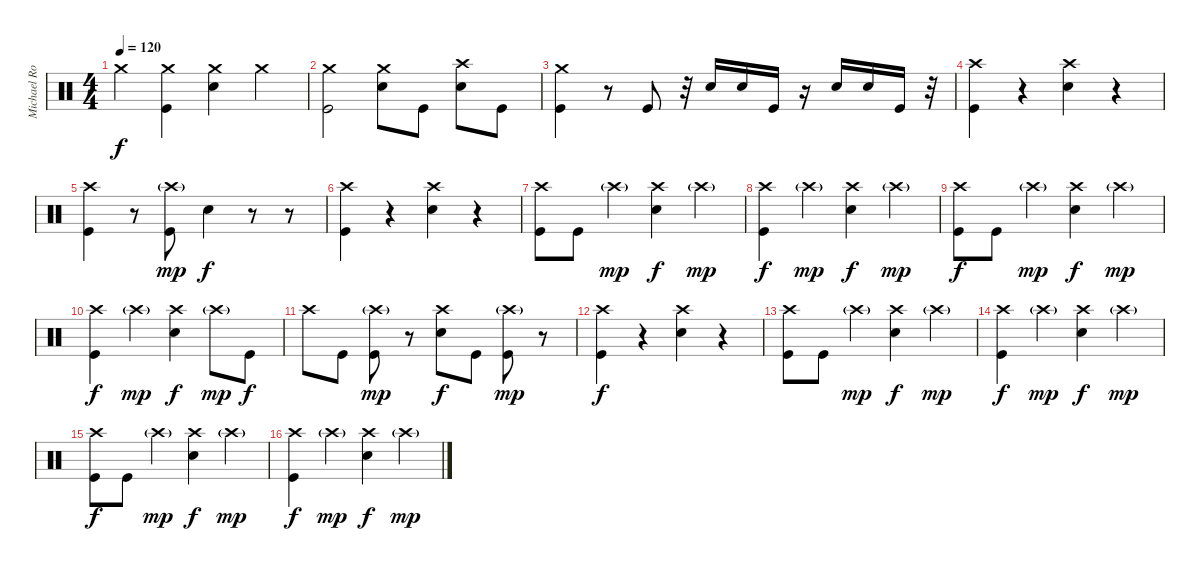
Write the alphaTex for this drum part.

\track ("Michael Roponus " "Michael Ro") {instrument percussion}
\staff {score}
\articulation defaults
\ts (4 4)
\tempo 120
\clef neutral
\ks c "Crash medium (hit)".4{dy f}
("Crash medium (hit)" "Kick (hit)").4 ("Crash medium (hit)" "Snare (hit) 2").4 "Crash medium (hit)".4 |
("Crash medium (hit)" "Kick (hit)").2 ("Crash medium (hit)" "Snare (hit) 2").8 "Kick (hit)".8 ("Crash high (hit)" "Snare (hit) 2").8 "Kick (hit)".8 |
("Crash medium (hit)" "Kick (hit)").4 r.8 "Kick (hit)".8 r.32 "Snare (hit) 2".16 "Snare (hit) 2".16 "Kick (hit)".16 r.16 "Snare (hit) 2".16 "Snare (hit) 2".16 "Kick (hit)".16 r.32 |
("Crash high (hit)" "Kick (hit)").4 r.4 ("Crash high (hit)" "Snare (hit) 2").4 r.4 |
("Crash high (hit)" "Kick (hit)").4 r.8 ("Crash high (hit)"{g} "Kick (hit)").8{dy mp} "Snare (hit) 2".4{dy f} r.8 r.8 |
("Crash high (hit)" "Kick (hit)").4 r.4 ("Crash high (hit)" "Snare (hit) 2").4 r.4 |
("Crash high (hit)" "Kick (hit)").8 "Kick (hit)".8 "Crash high (hit)"{g}.4{dy mp} ("Crash high (hit)" "Snare (hit) 2").4{dy f} "Crash high (hit)"{g}.4{dy mp} |
("Crash high (hit)" "Kick (hit)").4{dy f} "Crash high (hit)"{g}.4{dy mp} ("Crash high (hit)" "Snare (hit) 2").4{dy f} "Crash high (hit)"{g}.4{dy mp} |
("Crash high (hit)" "Kick (hit)").8{dy f} "Kick (hit)".8 "Crash high (hit)"{g}.4{dy mp} ("Crash high (hit)" "Snare (hit) 2").4{dy f} "Crash high (hit)"{g}.4{dy mp} |
("Crash high (hit)" "Kick (hit)").4{dy f} "Crash high (hit)"{g}.4{dy mp} ("Crash high (hit)" "Snare (hit) 2").4{dy f} "Crash high (hit)"{g}.8{dy mp} "Kick (hit)".8{dy f} |
"Crash high (hit)".8 "Kick (hit)".8 ("Crash high (hit)"{g} "Kick (hit)").8{dy mp} r.8 ("Crash high (hit)" "Snare (hit) 2").8{dy f} "Kick (hit)".8 ("Crash high (hit)"{g} "Kick (hit)").8{dy mp} r.8 |
("Crash high (hit)" "Kick (hit)").4{dy f} r.4 ("Crash high (hit)" "Snare (hit) 2").4 r.4 |
("Crash high (hit)" "Kick (hit)").8 "Kick (hit)".8 "Crash high (hit)"{g}.4{dy mp} ("Crash high (hit)" "Snare (hit) 2").4{dy f} "Crash high (hit)"{g}.4{dy mp} |
("Crash high (hit)" "Kick (hit)").4{dy f} "Crash high (hit)"{g}.4{dy mp} ("Crash high (hit)" "Snare (hit) 2").4{dy f} "Crash high (hit)"{g}.4{dy mp} |
("Crash high (hit)" "Kick (hit)").8{dy f} "Kick (hit)".8 "Crash high (hit)"{g}.4{dy mp} ("Crash high (hit)" "Snare (hit) 2").4{dy f} "Crash high (hit)"{g}.4{dy mp} |
("Crash high (hit)" "Kick (hit)").4{dy f} "Crash high (hit)"{g}.4{dy mp} ("Crash high (hit)" "Snare (hit) 2").4{dy f} "Crash high (hit)"{g}.4{dy mp}
